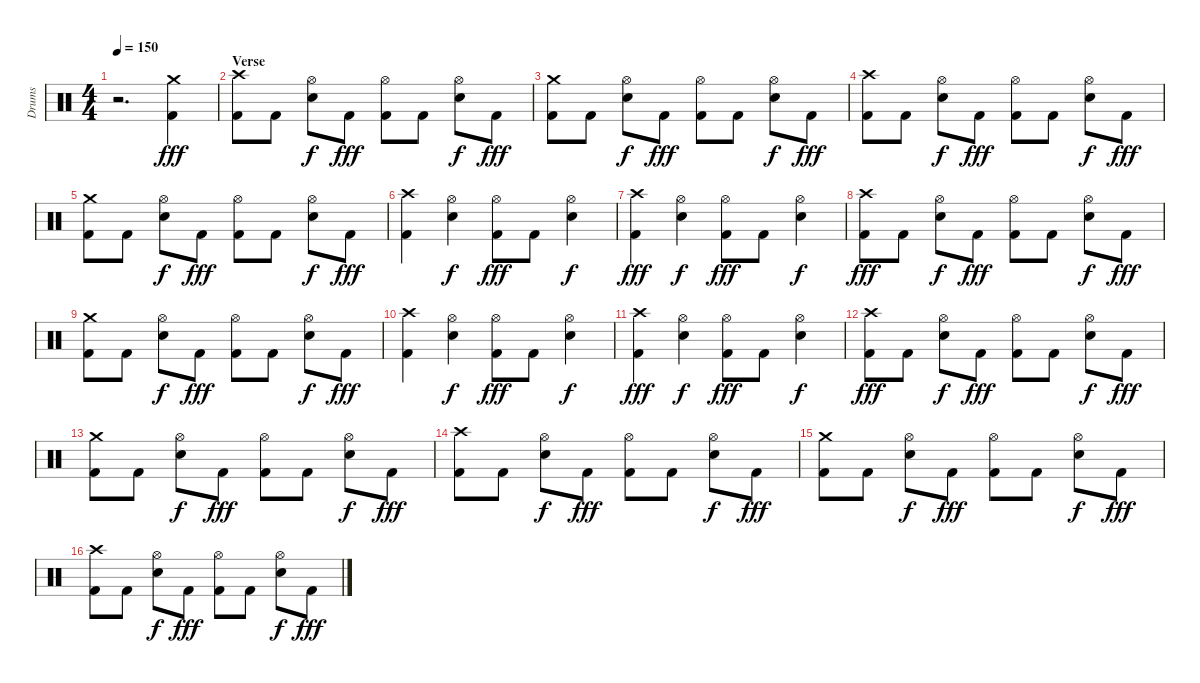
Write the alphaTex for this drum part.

\track ("Drums" "Drums") {instrument percussion}
\staff {score}
\articulation defaults
\ts (4 4)
\tempo 150
\clef neutral
\ks c
r.2{d dy f} ("Crash medium (hit)" "Kick (hit) 2").4{dy fff} |
\section ("" "Verse")
("Crash high (hit)" "Kick (hit) 2").8 "Kick (hit) 2".8 ("Hi-Hat (open)" "Snare (hit) 2").8{dy f} "Kick (hit) 2".8{dy fff} ("Hi-Hat (open)" "Kick (hit) 2").8 "Kick (hit) 2".8 ("Hi-Hat (open)" "Snare (hit) 2").8{dy f} "Kick (hit) 2".8{dy fff} |
("Crash medium (hit)" "Kick (hit) 2").8 "Kick (hit) 2".8 ("Hi-Hat (open)" "Snare (hit) 2").8{dy f} "Kick (hit) 2".8{dy fff} ("Hi-Hat (open)" "Kick (hit) 2").8 "Kick (hit) 2".8 ("Hi-Hat (open)" "Snare (hit) 2").8{dy f} "Kick (hit) 2".8{dy fff} |
("Crash high (hit)" "Kick (hit) 2").8 "Kick (hit) 2".8 ("Hi-Hat (open)" "Snare (hit) 2").8{dy f} "Kick (hit) 2".8{dy fff} ("Hi-Hat (open)" "Kick (hit) 2").8 "Kick (hit) 2".8 ("Hi-Hat (open)" "Snare (hit) 2").8{dy f} "Kick (hit) 2".8{dy fff} |
("Crash medium (hit)" "Kick (hit) 2").8 "Kick (hit) 2".8 ("Hi-Hat (open)" "Snare (hit) 2").8{dy f} "Kick (hit) 2".8{dy fff} ("Hi-Hat (open)" "Kick (hit) 2").8 "Kick (hit) 2".8 ("Hi-Hat (open)" "Snare (hit) 2").8{dy f} "Kick (hit) 2".8{dy fff} |
("Crash high (hit)" "Kick (hit) 2").4 ("Hi-Hat (open)" "Snare (hit) 2").4{dy f} ("Hi-Hat (open)" "Kick (hit) 2").8{dy fff} "Kick (hit) 2".8 ("Hi-Hat (open)" "Snare (hit) 2").4{dy f} |
("Crash high (hit)" "Kick (hit) 2").4{dy fff} ("Hi-Hat (open)" "Snare (hit) 2").4{dy f} ("Hi-Hat (open)" "Kick (hit) 2").8{dy fff} "Kick (hit) 2".8 ("Hi-Hat (open)" "Snare (hit) 2").4{dy f} |
("Crash high (hit)" "Kick (hit) 2").8{dy fff} "Kick (hit) 2".8 ("Hi-Hat (open)" "Snare (hit) 2").8{dy f} "Kick (hit) 2".8{dy fff} ("Hi-Hat (open)" "Kick (hit) 2").8 "Kick (hit) 2".8 ("Hi-Hat (open)" "Snare (hit) 2").8{dy f} "Kick (hit) 2".8{dy fff} |
("Crash medium (hit)" "Kick (hit) 2").8 "Kick (hit) 2".8 ("Hi-Hat (open)" "Snare (hit) 2").8{dy f} "Kick (hit) 2".8{dy fff} ("Hi-Hat (open)" "Kick (hit) 2").8 "Kick (hit) 2".8 ("Hi-Hat (open)" "Snare (hit) 2").8{dy f} "Kick (hit) 2".8{dy fff} |
("Crash high (hit)" "Kick (hit) 2").4 ("Hi-Hat (open)" "Snare (hit) 2").4{dy f} ("Hi-Hat (open)" "Kick (hit) 2").8{dy fff} "Kick (hit) 2".8 ("Hi-Hat (open)" "Snare (hit) 2").4{dy f} |
("Crash high (hit)" "Kick (hit) 2").4{dy fff} ("Hi-Hat (open)" "Snare (hit) 2").4{dy f} ("Hi-Hat (open)" "Kick (hit) 2").8{dy fff} "Kick (hit) 2".8 ("Hi-Hat (open)" "Snare (hit) 2").4{dy f} |
("Crash high (hit)" "Kick (hit) 2").8{dy fff} "Kick (hit) 2".8 ("Hi-Hat (open)" "Snare (hit) 2").8{dy f} "Kick (hit) 2".8{dy fff} ("Hi-Hat (open)" "Kick (hit) 2").8 "Kick (hit) 2".8 ("Hi-Hat (open)" "Snare (hit) 2").8{dy f} "Kick (hit) 2".8{dy fff} |
("Crash medium (hit)" "Kick (hit) 2").8 "Kick (hit) 2".8 ("Hi-Hat (open)" "Snare (hit) 2").8{dy f} "Kick (hit) 2".8{dy fff} ("Hi-Hat (open)" "Kick (hit) 2").8 "Kick (hit) 2".8 ("Hi-Hat (open)" "Snare (hit) 2").8{dy f} "Kick (hit) 2".8{dy fff} |
("Crash high (hit)" "Kick (hit) 2").8 "Kick (hit) 2".8 ("Hi-Hat (open)" "Snare (hit) 2").8{dy f} "Kick (hit) 2".8{dy fff} ("Hi-Hat (open)" "Kick (hit) 2").8 "Kick (hit) 2".8 ("Hi-Hat (open)" "Snare (hit) 2").8{dy f} "Kick (hit) 2".8{dy fff} |
("Crash medium (hit)" "Kick (hit) 2").8 "Kick (hit) 2".8 ("Hi-Hat (open)" "Snare (hit) 2").8{dy f} "Kick (hit) 2".8{dy fff} ("Hi-Hat (open)" "Kick (hit) 2").8 "Kick (hit) 2".8 ("Hi-Hat (open)" "Snare (hit) 2").8{dy f} "Kick (hit) 2".8{dy fff} |
("Crash high (hit)" "Kick (hit) 2").8 "Kick (hit) 2".8 ("Hi-Hat (open)" "Snare (hit) 2").8{dy f} "Kick (hit) 2".8{dy fff} ("Hi-Hat (open)" "Kick (hit) 2").8 "Kick (hit) 2".8 ("Hi-Hat (open)" "Snare (hit) 2").8{dy f} "Kick (hit) 2".8{dy fff}
